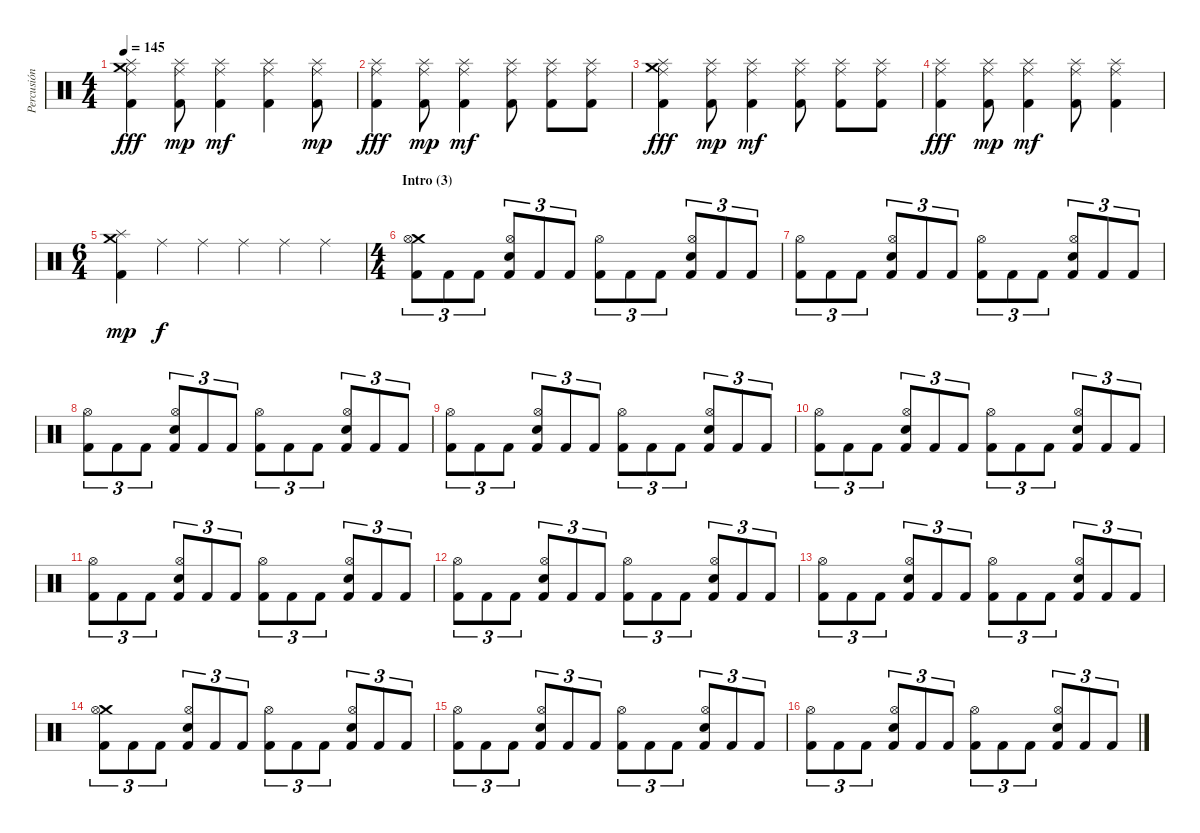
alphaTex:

\track ("Percusión" "Percusión") {instrument percussion}
\staff {score}
\articulation defaults
\ts (4 4)
\tempo 145
\clef neutral
\ks c
("Splash (hit)" "Kick (hit) 2" "Crash medium (hit)" "Ride (middle)").4{dy fff} ("Splash (hit)" "Kick (hit) 2" "Ride (middle)").8{dy mp} ("Splash (hit)" "Kick (hit) 2" "Ride (middle)").4{dy mf} ("Splash (hit)" "Kick (hit) 2" "Ride (middle)").4 ("Splash (hit)" "Kick (hit) 2" "Ride (middle)").8{dy mp} |
("Splash (hit)" "Kick (hit) 2" "Ride (middle)").4{dy fff} ("Splash (hit)" "Kick (hit) 2" "Ride (middle)").8{dy mp} ("Splash (hit)" "Kick (hit) 2" "Ride (middle)").4{dy mf} ("Splash (hit)" "Kick (hit) 2" "Ride (middle)").8 ("Splash (hit)" "Kick (hit) 2" "Ride (middle)").8 ("Splash (hit)" "Kick (hit) 2" "Ride (middle)").8 |
("Splash (hit)" "Kick (hit) 2" "Crash medium (hit)" "Ride (middle)").4{dy fff} ("Splash (hit)" "Kick (hit) 2" "Ride (middle)").8{dy mp} ("Splash (hit)" "Kick (hit) 2" "Ride (middle)").4{dy mf} ("Splash (hit)" "Kick (hit) 2" "Ride (middle)").8 ("Splash (hit)" "Kick (hit) 2" "Ride (middle)").8 ("Splash (hit)" "Kick (hit) 2" "Ride (middle)").8 |
("Splash (hit)" "Kick (hit) 2" "Ride (middle)").4{dy fff} ("Splash (hit)" "Kick (hit) 2" "Ride (middle)").8{dy mp} ("Splash (hit)" "Kick (hit) 2" "Ride (middle)").4{dy mf} ("Splash (hit)" "Kick (hit) 2" "Ride (middle)").8 ("Splash (hit)" "Kick (hit) 2" "Ride (middle)").4 |
\ts (6 4)
("Splash (hit)" "Kick (hit) 2" "Crash medium (hit)").4{dy mp} "Ride (middle)".4{dy f} "Ride (middle)".4 "Ride (middle)".4 "Ride (middle)".4 "Ride (middle)".4 |
\ts (4 4)
\section ("" "Intro (3)")
("Crash medium (hit)" "Kick (hit) 2" "Hi-Hat (open)").8{tu (3 2)} "Kick (hit) 2".8{tu (3 2)} "Kick (hit) 2".8{tu (3 2)} ("Hi-Hat (open)" "Kick (hit) 2" "Snare (hit) 2").8{tu (3 2)} "Kick (hit) 2".8{tu (3 2)} "Kick (hit) 2".8{tu (3 2)} ("Kick (hit) 2" "Hi-Hat (open)").8{tu (3 2)} "Kick (hit) 2".8{tu (3 2)} "Kick (hit) 2".8{tu (3 2)} ("Hi-Hat (open)" "Kick (hit) 2" "Snare (hit) 2").8{tu (3 2)} "Kick (hit) 2".8{tu (3 2)} "Kick (hit) 2".8{tu (3 2)} |
("Kick (hit) 2" "Hi-Hat (open)").8{tu (3 2)} "Kick (hit) 2".8{tu (3 2)} "Kick (hit) 2".8{tu (3 2)} ("Hi-Hat (open)" "Kick (hit) 2" "Snare (hit) 2").8{tu (3 2)} "Kick (hit) 2".8{tu (3 2)} "Kick (hit) 2".8{tu (3 2)} ("Kick (hit) 2" "Hi-Hat (open)").8{tu (3 2)} "Kick (hit) 2".8{tu (3 2)} "Kick (hit) 2".8{tu (3 2)} ("Hi-Hat (open)" "Kick (hit) 2" "Snare (hit) 2").8{tu (3 2)} "Kick (hit) 2".8{tu (3 2)} "Kick (hit) 2".8{tu (3 2)} |
("Kick (hit) 2" "Hi-Hat (open)").8{tu (3 2)} "Kick (hit) 2".8{tu (3 2)} "Kick (hit) 2".8{tu (3 2)} ("Hi-Hat (open)" "Kick (hit) 2" "Snare (hit) 2").8{tu (3 2)} "Kick (hit) 2".8{tu (3 2)} "Kick (hit) 2".8{tu (3 2)} ("Kick (hit) 2" "Hi-Hat (open)").8{tu (3 2)} "Kick (hit) 2".8{tu (3 2)} "Kick (hit) 2".8{tu (3 2)} ("Hi-Hat (open)" "Kick (hit) 2" "Snare (hit) 2").8{tu (3 2)} "Kick (hit) 2".8{tu (3 2)} "Kick (hit) 2".8{tu (3 2)} |
("Kick (hit) 2" "Hi-Hat (open)").8{tu (3 2)} "Kick (hit) 2".8{tu (3 2)} "Kick (hit) 2".8{tu (3 2)} ("Hi-Hat (open)" "Kick (hit) 2" "Snare (hit) 2").8{tu (3 2)} "Kick (hit) 2".8{tu (3 2)} "Kick (hit) 2".8{tu (3 2)} ("Kick (hit) 2" "Hi-Hat (open)").8{tu (3 2)} "Kick (hit) 2".8{tu (3 2)} "Kick (hit) 2".8{tu (3 2)} ("Hi-Hat (open)" "Kick (hit) 2" "Snare (hit) 2").8{tu (3 2)} "Kick (hit) 2".8{tu (3 2)} "Kick (hit) 2".8{tu (3 2)} |
("Kick (hit) 2" "Hi-Hat (open)").8{tu (3 2)} "Kick (hit) 2".8{tu (3 2)} "Kick (hit) 2".8{tu (3 2)} ("Hi-Hat (open)" "Kick (hit) 2" "Snare (hit) 2").8{tu (3 2)} "Kick (hit) 2".8{tu (3 2)} "Kick (hit) 2".8{tu (3 2)} ("Kick (hit) 2" "Hi-Hat (open)").8{tu (3 2)} "Kick (hit) 2".8{tu (3 2)} "Kick (hit) 2".8{tu (3 2)} ("Hi-Hat (open)" "Kick (hit) 2" "Snare (hit) 2").8{tu (3 2)} "Kick (hit) 2".8{tu (3 2)} "Kick (hit) 2".8{tu (3 2)} |
("Kick (hit) 2" "Hi-Hat (open)").8{tu (3 2)} "Kick (hit) 2".8{tu (3 2)} "Kick (hit) 2".8{tu (3 2)} ("Hi-Hat (open)" "Kick (hit) 2" "Snare (hit) 2").8{tu (3 2)} "Kick (hit) 2".8{tu (3 2)} "Kick (hit) 2".8{tu (3 2)} ("Kick (hit) 2" "Hi-Hat (open)").8{tu (3 2)} "Kick (hit) 2".8{tu (3 2)} "Kick (hit) 2".8{tu (3 2)} ("Hi-Hat (open)" "Kick (hit) 2" "Snare (hit) 2").8{tu (3 2)} "Kick (hit) 2".8{tu (3 2)} "Kick (hit) 2".8{tu (3 2)} |
("Kick (hit) 2" "Hi-Hat (open)").8{tu (3 2)} "Kick (hit) 2".8{tu (3 2)} "Kick (hit) 2".8{tu (3 2)} ("Hi-Hat (open)" "Kick (hit) 2" "Snare (hit) 2").8{tu (3 2)} "Kick (hit) 2".8{tu (3 2)} "Kick (hit) 2".8{tu (3 2)} ("Kick (hit) 2" "Hi-Hat (open)").8{tu (3 2)} "Kick (hit) 2".8{tu (3 2)} "Kick (hit) 2".8{tu (3 2)} ("Hi-Hat (open)" "Kick (hit) 2" "Snare (hit) 2").8{tu (3 2)} "Kick (hit) 2".8{tu (3 2)} "Kick (hit) 2".8{tu (3 2)} |
("Kick (hit) 2" "Hi-Hat (open)").8{tu (3 2)} "Kick (hit) 2".8{tu (3 2)} "Kick (hit) 2".8{tu (3 2)} ("Hi-Hat (open)" "Kick (hit) 2" "Snare (hit) 2").8{tu (3 2)} "Kick (hit) 2".8{tu (3 2)} "Kick (hit) 2".8{tu (3 2)} ("Kick (hit) 2" "Hi-Hat (open)").8{tu (3 2)} "Kick (hit) 2".8{tu (3 2)} "Kick (hit) 2".8{tu (3 2)} ("Hi-Hat (open)" "Kick (hit) 2" "Snare (hit) 2").8{tu (3 2)} "Kick (hit) 2".8{tu (3 2)} "Kick (hit) 2".8{tu (3 2)} |
("Crash medium (hit)" "Kick (hit) 2" "Hi-Hat (open)").8{tu (3 2)} "Kick (hit) 2".8{tu (3 2)} "Kick (hit) 2".8{tu (3 2)} ("Hi-Hat (open)" "Kick (hit) 2" "Snare (hit) 2").8{tu (3 2)} "Kick (hit) 2".8{tu (3 2)} "Kick (hit) 2".8{tu (3 2)} ("Kick (hit) 2" "Hi-Hat (open)").8{tu (3 2)} "Kick (hit) 2".8{tu (3 2)} "Kick (hit) 2".8{tu (3 2)} ("Hi-Hat (open)" "Kick (hit) 2" "Snare (hit) 2").8{tu (3 2)} "Kick (hit) 2".8{tu (3 2)} "Kick (hit) 2".8{tu (3 2)} |
("Kick (hit) 2" "Hi-Hat (open)").8{tu (3 2)} "Kick (hit) 2".8{tu (3 2)} "Kick (hit) 2".8{tu (3 2)} ("Hi-Hat (open)" "Kick (hit) 2" "Snare (hit) 2").8{tu (3 2)} "Kick (hit) 2".8{tu (3 2)} "Kick (hit) 2".8{tu (3 2)} ("Kick (hit) 2" "Hi-Hat (open)").8{tu (3 2)} "Kick (hit) 2".8{tu (3 2)} "Kick (hit) 2".8{tu (3 2)} ("Hi-Hat (open)" "Kick (hit) 2" "Snare (hit) 2").8{tu (3 2)} "Kick (hit) 2".8{tu (3 2)} "Kick (hit) 2".8{tu (3 2)} |
("Kick (hit) 2" "Hi-Hat (open)").8{tu (3 2)} "Kick (hit) 2".8{tu (3 2)} "Kick (hit) 2".8{tu (3 2)} ("Hi-Hat (open)" "Kick (hit) 2" "Snare (hit) 2").8{tu (3 2)} "Kick (hit) 2".8{tu (3 2)} "Kick (hit) 2".8{tu (3 2)} ("Kick (hit) 2" "Hi-Hat (open)").8{tu (3 2)} "Kick (hit) 2".8{tu (3 2)} "Kick (hit) 2".8{tu (3 2)} ("Hi-Hat (open)" "Kick (hit) 2" "Snare (hit) 2").8{tu (3 2)} "Kick (hit) 2".8{tu (3 2)} "Kick (hit) 2".8{tu (3 2)}
